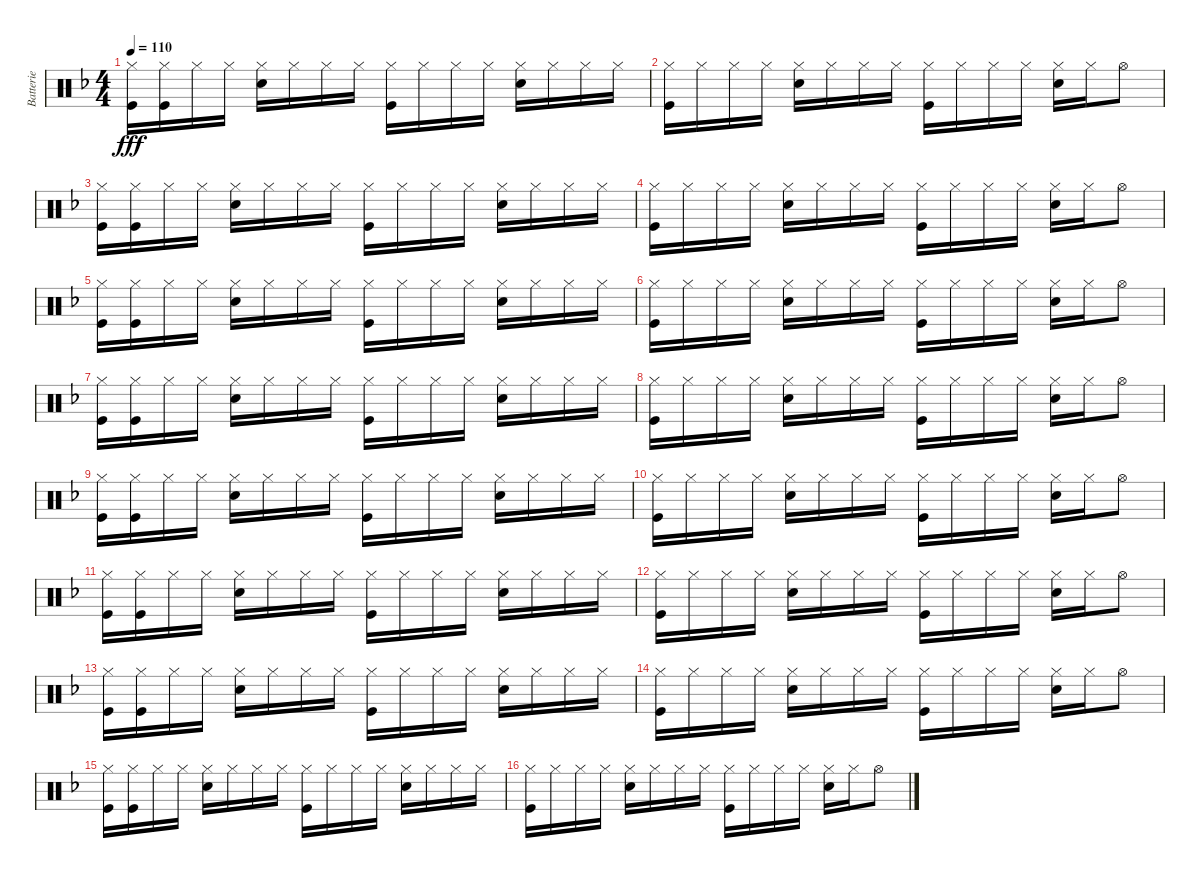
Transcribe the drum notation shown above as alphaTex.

\track ("Batterie" "Batterie") {instrument percussion}
\staff {score}
\articulation defaults
\ts (4 4)
\tempo 110
\clef neutral
\ks f
("Hi-Hat (closed)" "Kick (hit)").16{dy fff} ("Hi-Hat (closed)" "Kick (hit)").16 "Hi-Hat (closed)".16 "Hi-Hat (closed)".16 ("Hi-Hat (closed)" "Snare (hit) 2").16 "Hi-Hat (closed)".16 "Hi-Hat (closed)".16 "Hi-Hat (closed)".16 ("Hi-Hat (closed)" "Kick (hit)").16 "Hi-Hat (closed)".16 "Hi-Hat (closed)".16 "Hi-Hat (closed)".16 ("Hi-Hat (closed)" "Snare (hit) 2").16 "Hi-Hat (closed)".16 "Hi-Hat (closed)".16 "Hi-Hat (closed)".16 |
("Hi-Hat (closed)" "Kick (hit)").16 "Hi-Hat (closed)".16 "Hi-Hat (closed)".16 "Hi-Hat (closed)".16 ("Hi-Hat (closed)" "Snare (hit) 2").16 "Hi-Hat (closed)".16 "Hi-Hat (closed)".16 "Hi-Hat (closed)".16 ("Hi-Hat (closed)" "Kick (hit)").16 "Hi-Hat (closed)".16 "Hi-Hat (closed)".16 "Hi-Hat (closed)".16 ("Hi-Hat (closed)" "Snare (hit) 2").16 "Hi-Hat (closed)".16 "Hi-Hat (open)".8 |
("Hi-Hat (closed)" "Kick (hit)").16 ("Hi-Hat (closed)" "Kick (hit)").16 "Hi-Hat (closed)".16 "Hi-Hat (closed)".16 ("Hi-Hat (closed)" "Snare (hit) 2").16 "Hi-Hat (closed)".16 "Hi-Hat (closed)".16 "Hi-Hat (closed)".16 ("Hi-Hat (closed)" "Kick (hit)").16 "Hi-Hat (closed)".16 "Hi-Hat (closed)".16 "Hi-Hat (closed)".16 ("Hi-Hat (closed)" "Snare (hit) 2").16 "Hi-Hat (closed)".16 "Hi-Hat (closed)".16 "Hi-Hat (closed)".16 |
("Hi-Hat (closed)" "Kick (hit)").16 "Hi-Hat (closed)".16 "Hi-Hat (closed)".16 "Hi-Hat (closed)".16 ("Hi-Hat (closed)" "Snare (hit) 2").16 "Hi-Hat (closed)".16 "Hi-Hat (closed)".16 "Hi-Hat (closed)".16 ("Hi-Hat (closed)" "Kick (hit)").16 "Hi-Hat (closed)".16 "Hi-Hat (closed)".16 "Hi-Hat (closed)".16 ("Hi-Hat (closed)" "Snare (hit) 2").16 "Hi-Hat (closed)".16 "Hi-Hat (open)".8 |
("Hi-Hat (closed)" "Kick (hit)").16 ("Hi-Hat (closed)" "Kick (hit)").16 "Hi-Hat (closed)".16 "Hi-Hat (closed)".16 ("Hi-Hat (closed)" "Snare (hit) 2").16 "Hi-Hat (closed)".16 "Hi-Hat (closed)".16 "Hi-Hat (closed)".16 ("Hi-Hat (closed)" "Kick (hit)").16 "Hi-Hat (closed)".16 "Hi-Hat (closed)".16 "Hi-Hat (closed)".16 ("Hi-Hat (closed)" "Snare (hit) 2").16 "Hi-Hat (closed)".16 "Hi-Hat (closed)".16 "Hi-Hat (closed)".16 |
("Hi-Hat (closed)" "Kick (hit)").16 "Hi-Hat (closed)".16 "Hi-Hat (closed)".16 "Hi-Hat (closed)".16 ("Hi-Hat (closed)" "Snare (hit) 2").16 "Hi-Hat (closed)".16 "Hi-Hat (closed)".16 "Hi-Hat (closed)".16 ("Hi-Hat (closed)" "Kick (hit)").16 "Hi-Hat (closed)".16 "Hi-Hat (closed)".16 "Hi-Hat (closed)".16 ("Hi-Hat (closed)" "Snare (hit) 2").16 "Hi-Hat (closed)".16 "Hi-Hat (open)".8 |
("Hi-Hat (closed)" "Kick (hit)").16 ("Hi-Hat (closed)" "Kick (hit)").16 "Hi-Hat (closed)".16 "Hi-Hat (closed)".16 ("Hi-Hat (closed)" "Snare (hit) 2").16 "Hi-Hat (closed)".16 "Hi-Hat (closed)".16 "Hi-Hat (closed)".16 ("Hi-Hat (closed)" "Kick (hit)").16 "Hi-Hat (closed)".16 "Hi-Hat (closed)".16 "Hi-Hat (closed)".16 ("Hi-Hat (closed)" "Snare (hit) 2").16 "Hi-Hat (closed)".16 "Hi-Hat (closed)".16 "Hi-Hat (closed)".16 |
("Hi-Hat (closed)" "Kick (hit)").16 "Hi-Hat (closed)".16 "Hi-Hat (closed)".16 "Hi-Hat (closed)".16 ("Hi-Hat (closed)" "Snare (hit) 2").16 "Hi-Hat (closed)".16 "Hi-Hat (closed)".16 "Hi-Hat (closed)".16 ("Hi-Hat (closed)" "Kick (hit)").16 "Hi-Hat (closed)".16 "Hi-Hat (closed)".16 "Hi-Hat (closed)".16 ("Hi-Hat (closed)" "Snare (hit) 2").16 "Hi-Hat (closed)".16 "Hi-Hat (open)".8 |
("Hi-Hat (closed)" "Kick (hit)").16 ("Hi-Hat (closed)" "Kick (hit)").16 "Hi-Hat (closed)".16 "Hi-Hat (closed)".16 ("Hi-Hat (closed)" "Snare (hit) 2").16 "Hi-Hat (closed)".16 "Hi-Hat (closed)".16 "Hi-Hat (closed)".16 ("Hi-Hat (closed)" "Kick (hit)").16 "Hi-Hat (closed)".16 "Hi-Hat (closed)".16 "Hi-Hat (closed)".16 ("Hi-Hat (closed)" "Snare (hit) 2").16 "Hi-Hat (closed)".16 "Hi-Hat (closed)".16 "Hi-Hat (closed)".16 |
("Hi-Hat (closed)" "Kick (hit)").16 "Hi-Hat (closed)".16 "Hi-Hat (closed)".16 "Hi-Hat (closed)".16 ("Hi-Hat (closed)" "Snare (hit) 2").16 "Hi-Hat (closed)".16 "Hi-Hat (closed)".16 "Hi-Hat (closed)".16 ("Hi-Hat (closed)" "Kick (hit)").16 "Hi-Hat (closed)".16 "Hi-Hat (closed)".16 "Hi-Hat (closed)".16 ("Hi-Hat (closed)" "Snare (hit) 2").16 "Hi-Hat (closed)".16 "Hi-Hat (open)".8 |
("Hi-Hat (closed)" "Kick (hit)").16 ("Hi-Hat (closed)" "Kick (hit)").16 "Hi-Hat (closed)".16 "Hi-Hat (closed)".16 ("Hi-Hat (closed)" "Snare (hit) 2").16 "Hi-Hat (closed)".16 "Hi-Hat (closed)".16 "Hi-Hat (closed)".16 ("Hi-Hat (closed)" "Kick (hit)").16 "Hi-Hat (closed)".16 "Hi-Hat (closed)".16 "Hi-Hat (closed)".16 ("Hi-Hat (closed)" "Snare (hit) 2").16 "Hi-Hat (closed)".16 "Hi-Hat (closed)".16 "Hi-Hat (closed)".16 |
("Hi-Hat (closed)" "Kick (hit)").16 "Hi-Hat (closed)".16 "Hi-Hat (closed)".16 "Hi-Hat (closed)".16 ("Hi-Hat (closed)" "Snare (hit) 2").16 "Hi-Hat (closed)".16 "Hi-Hat (closed)".16 "Hi-Hat (closed)".16 ("Hi-Hat (closed)" "Kick (hit)").16 "Hi-Hat (closed)".16 "Hi-Hat (closed)".16 "Hi-Hat (closed)".16 ("Hi-Hat (closed)" "Snare (hit) 2").16 "Hi-Hat (closed)".16 "Hi-Hat (open)".8 |
("Hi-Hat (closed)" "Kick (hit)").16 ("Hi-Hat (closed)" "Kick (hit)").16 "Hi-Hat (closed)".16 "Hi-Hat (closed)".16 ("Hi-Hat (closed)" "Snare (hit) 2").16 "Hi-Hat (closed)".16 "Hi-Hat (closed)".16 "Hi-Hat (closed)".16 ("Hi-Hat (closed)" "Kick (hit)").16 "Hi-Hat (closed)".16 "Hi-Hat (closed)".16 "Hi-Hat (closed)".16 ("Hi-Hat (closed)" "Snare (hit) 2").16 "Hi-Hat (closed)".16 "Hi-Hat (closed)".16 "Hi-Hat (closed)".16 |
("Hi-Hat (closed)" "Kick (hit)").16 "Hi-Hat (closed)".16 "Hi-Hat (closed)".16 "Hi-Hat (closed)".16 ("Hi-Hat (closed)" "Snare (hit) 2").16 "Hi-Hat (closed)".16 "Hi-Hat (closed)".16 "Hi-Hat (closed)".16 ("Hi-Hat (closed)" "Kick (hit)").16 "Hi-Hat (closed)".16 "Hi-Hat (closed)".16 "Hi-Hat (closed)".16 ("Hi-Hat (closed)" "Snare (hit) 2").16 "Hi-Hat (closed)".16 "Hi-Hat (open)".8 |
("Hi-Hat (closed)" "Kick (hit)").16 ("Hi-Hat (closed)" "Kick (hit)").16 "Hi-Hat (closed)".16 "Hi-Hat (closed)".16 ("Hi-Hat (closed)" "Snare (hit) 2").16 "Hi-Hat (closed)".16 "Hi-Hat (closed)".16 "Hi-Hat (closed)".16 ("Hi-Hat (closed)" "Kick (hit)").16 "Hi-Hat (closed)".16 "Hi-Hat (closed)".16 "Hi-Hat (closed)".16 ("Hi-Hat (closed)" "Snare (hit) 2").16 "Hi-Hat (closed)".16 "Hi-Hat (closed)".16 "Hi-Hat (closed)".16 |
("Hi-Hat (closed)" "Kick (hit)").16 "Hi-Hat (closed)".16 "Hi-Hat (closed)".16 "Hi-Hat (closed)".16 ("Hi-Hat (closed)" "Snare (hit) 2").16 "Hi-Hat (closed)".16 "Hi-Hat (closed)".16 "Hi-Hat (closed)".16 ("Hi-Hat (closed)" "Kick (hit)").16 "Hi-Hat (closed)".16 "Hi-Hat (closed)".16 "Hi-Hat (closed)".16 ("Hi-Hat (closed)" "Snare (hit) 2").16 "Hi-Hat (closed)".16 "Hi-Hat (open)".8
